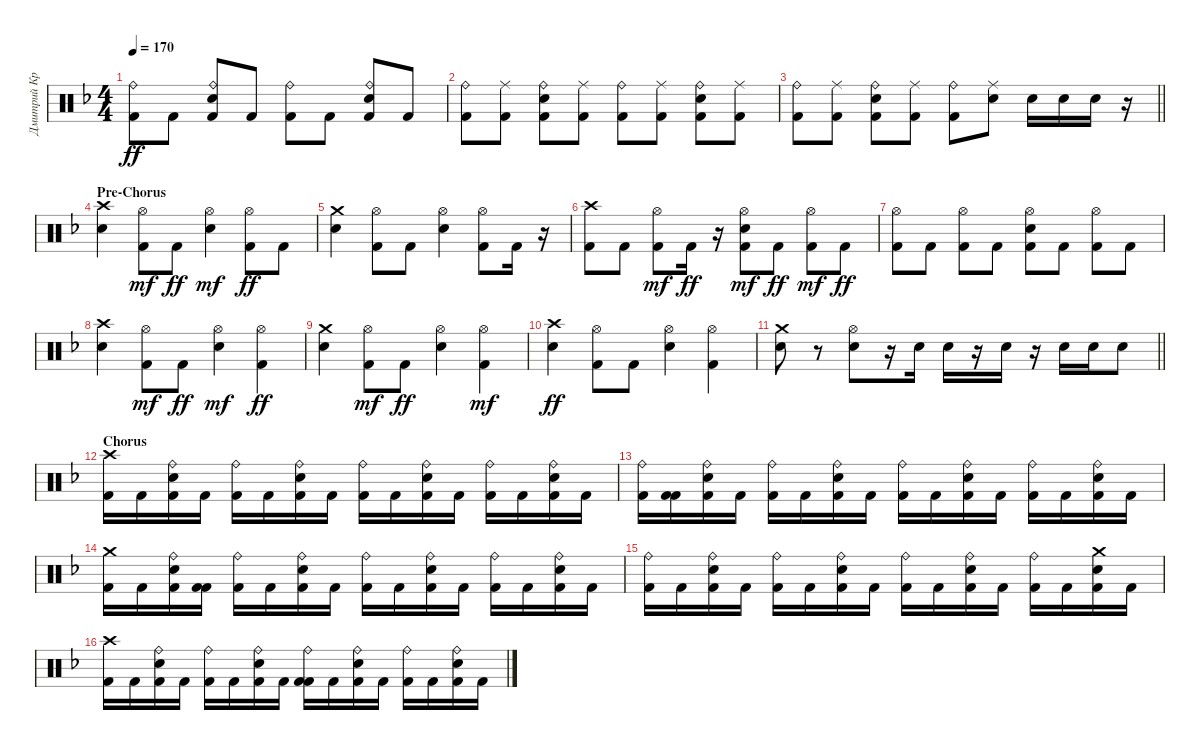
\track ("Дмитрий Кривенков" "Дмитрий Кр") {instrument percussion}
\staff {score}
\articulation defaults
\ts (4 4)
\tempo 170
\clef neutral
\ks f
("Kick (hit) 2" "Ride (bell)").8{dy ff} "Kick (hit) 2".8 ("Kick (hit) 2" "Electric Snare (hit)" "Ride (bell)").8 "Kick (hit) 2".8 ("Kick (hit) 2" "Ride (bell)").8 "Kick (hit) 2".8 ("Kick (hit) 2" "Electric Snare (hit)" "Ride (bell)").8 "Kick (hit) 2".8 |
("Kick (hit) 2" "Ride (bell)").8 ("Kick (hit) 2" "Ride (middle)").8 ("Kick (hit) 2" "Electric Snare (hit)" "Ride (bell)").8 ("Kick (hit) 2" "Ride (middle)").8 ("Kick (hit) 2" "Ride (bell)").8 ("Kick (hit) 2" "Ride (middle)").8 ("Kick (hit) 2" "Electric Snare (hit)" "Ride (bell)").8 ("Kick (hit) 2" "Ride (middle)").8 |
\barLineRight lightlight
("Kick (hit) 2" "Ride (bell)").8 ("Ride (middle)" "Kick (hit) 2").8 ("Kick (hit) 2" "Electric Snare (hit)" "Ride (bell)").8 ("Kick (hit) 2" "Ride (middle)").8 ("Kick (hit) 2" "Ride (bell)").8 ("Ride (middle)" "Electric Snare (hit)").8 "Electric Snare (hit)".16 "Electric Snare (hit)".16 "Electric Snare (hit)".16 r.16 |
\section ("" "Pre-Chorus")
("Electric Snare (hit)" "Crash high (hit)").4 ("Kick (hit) 2" "Hi-Hat (open)").8{dy mf} "Kick (hit) 2".8{dy ff} ("Electric Snare (hit)" "Hi-Hat (open)").4{dy mf} ("Hi-Hat (open)" "Kick (hit) 2").8{dy ff} "Kick (hit) 2".8 |
("Electric Snare (hit)" "Crash medium (hit)").4 ("Hi-Hat (open)" "Kick (hit) 2").8 "Kick (hit) 2".8 ("Hi-Hat (open)" "Electric Snare (hit)").4 ("Hi-Hat (open)" "Kick (hit) 2").8 "Kick (hit) 2".16 r.16 |
("Kick (hit) 2" "Crash high (hit)").8 "Kick (hit) 2".8 ("Kick (hit) 2" "Hi-Hat (open)").8{dy mf} "Kick (hit) 2".16{dy ff} r.16 ("Kick (hit) 2" "Electric Snare (hit)" "Hi-Hat (open)").8{dy mf} "Kick (hit) 2".8{dy ff} ("Kick (hit) 2" "Hi-Hat (open)").8{dy mf} "Kick (hit) 2".8{dy ff} |
("Hi-Hat (open)" "Kick (hit) 2").8 "Kick (hit) 2".8 ("Hi-Hat (open)" "Kick (hit) 2").8 "Kick (hit) 2".8 ("Hi-Hat (open)" "Kick (hit) 2" "Electric Snare (hit)").8 "Kick (hit) 2".8 ("Hi-Hat (open)" "Kick (hit) 2").8 "Kick (hit) 2".8 |
("Electric Snare (hit)" "Crash high (hit)").4 ("Kick (hit) 2" "Hi-Hat (open)").8{dy mf} "Kick (hit) 2".8{dy ff} ("Electric Snare (hit)" "Hi-Hat (open)").4{dy mf} ("Hi-Hat (open)" "Kick (hit) 2").4{dy ff} |
("Electric Snare (hit)" "Crash medium (hit)").4 ("Kick (hit) 2" "Hi-Hat (open)").8{dy mf} "Kick (hit) 2".8{dy ff} ("Hi-Hat (open)" "Electric Snare (hit)").4 ("Kick (hit) 2" "Hi-Hat (open)").4{dy mf} |
("Electric Snare (hit)" "Crash high (hit)").4{dy ff} ("Hi-Hat (open)" "Kick (hit) 2").8 "Kick (hit) 2".8 ("Hi-Hat (open)" "Electric Snare (hit)").4 ("Hi-Hat (open)" "Kick (hit) 2").4 |
\barLineRight lightlight
("Electric Snare (hit)" "Crash medium (hit)").8 r.8 ("Hi-Hat (open)" "Electric Snare (hit)").8 r.16 "Electric Snare (hit)".16 "Electric Snare (hit)".16 r.16 "Electric Snare (hit)".16 r.16 "Electric Snare (hit)".16 "Electric Snare (hit)".16 "Electric Snare (hit)".8 |
\section ("" "Chorus")
("Kick (hit) 2" "Crash high (hit)").16 "Kick (hit) 2".16 ("Kick (hit) 2" "Electric Snare (hit)" "Ride (bell)").16 "Kick (hit) 2".16 ("Kick (hit) 2" "Ride (bell)").16 "Kick (hit) 2".16 ("Kick (hit) 2" "Electric Snare (hit)" "Ride (bell)").16 "Kick (hit) 2".16 ("Kick (hit) 2" "Ride (bell)").16 "Kick (hit) 2".16 ("Kick (hit) 2" "Electric Snare (hit)" "Ride (bell)").16 "Kick (hit) 2".16 ("Kick (hit) 2" "Ride (bell)").16 "Kick (hit) 2".16 ("Kick (hit) 2" "Electric Snare (hit)" "Ride (bell)").16 "Kick (hit) 2".16 |
("Kick (hit) 2" "Ride (bell)").16 ("Kick (hit) 2" "Kick (hit) 2").16 ("Kick (hit) 2" "Electric Snare (hit)" "Ride (bell)").16 "Kick (hit) 2".16 ("Kick (hit) 2" "Ride (bell)").16 "Kick (hit) 2".16 ("Kick (hit) 2" "Electric Snare (hit)" "Ride (bell)").16 "Kick (hit) 2".16 ("Kick (hit) 2" "Ride (bell)").16 "Kick (hit) 2".16 ("Kick (hit) 2" "Electric Snare (hit)" "Ride (bell)").16 "Kick (hit) 2".16 ("Kick (hit) 2" "Ride (bell)").16 "Kick (hit) 2".16 ("Kick (hit) 2" "Electric Snare (hit)" "Ride (bell)").16 "Kick (hit) 2".16 |
("Kick (hit) 2" "Crash medium (hit)").16 "Kick (hit) 2".16 ("Kick (hit) 2" "Electric Snare (hit)" "Ride (bell)").16 ("Kick (hit) 2" "Kick (hit) 2").16 ("Kick (hit) 2" "Ride (bell)").16 "Kick (hit) 2".16 ("Kick (hit) 2" "Electric Snare (hit)" "Ride (bell)").16 "Kick (hit) 2".16 ("Kick (hit) 2" "Ride (bell)").16 "Kick (hit) 2".16 ("Kick (hit) 2" "Electric Snare (hit)" "Ride (bell)").16 "Kick (hit) 2".16 ("Kick (hit) 2" "Ride (bell)").16 "Kick (hit) 2".16 ("Kick (hit) 2" "Electric Snare (hit)" "Ride (bell)").16 "Kick (hit) 2".16 |
("Kick (hit) 2" "Ride (bell)").16 "Kick (hit) 2".16 ("Kick (hit) 2" "Electric Snare (hit)" "Ride (bell)").16 "Kick (hit) 2".16 ("Kick (hit) 2" "Ride (bell)").16 "Kick (hit) 2".16 ("Kick (hit) 2" "Electric Snare (hit)" "Ride (bell)").16 "Kick (hit) 2".16 ("Kick (hit) 2" "Ride (bell)").16 "Kick (hit) 2".16 ("Kick (hit) 2" "Electric Snare (hit)" "Ride (bell)").16 "Kick (hit) 2".16 ("Kick (hit) 2" "Ride (bell)").16 "Kick (hit) 2".16 ("Kick (hit) 2" "Electric Snare (hit)" "Crash medium (hit)").16 "Kick (hit) 2".16 |
("Kick (hit) 2" "Crash high (hit)").16 "Kick (hit) 2".16 ("Kick (hit) 2" "Electric Snare (hit)" "Ride (bell)").16 "Kick (hit) 2".16 ("Kick (hit) 2" "Ride (bell)").16 "Kick (hit) 2".16 ("Kick (hit) 2" "Electric Snare (hit)" "Ride (bell)").16 "Kick (hit) 2".16 ("Kick (hit) 2" "Kick (hit) 2" "Ride (bell)").16 "Kick (hit) 2".16 ("Kick (hit) 2" "Electric Snare (hit)" "Ride (bell)").16 "Kick (hit) 2".16 ("Kick (hit) 2" "Ride (bell)").16 "Kick (hit) 2".16 ("Kick (hit) 2" "Electric Snare (hit)" "Ride (bell)").16 "Kick (hit) 2".16
